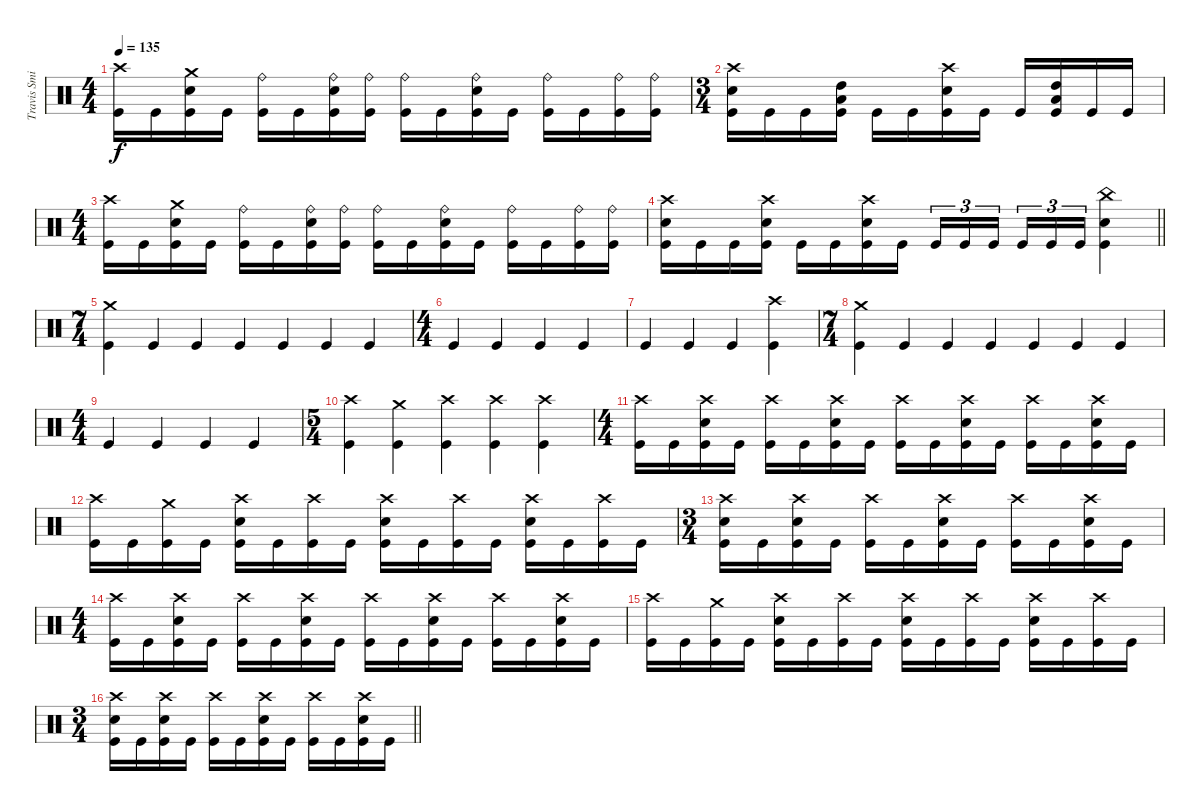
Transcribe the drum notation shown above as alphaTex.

\track ("Travis Smith" "Travis Smi") {instrument percussion}
\staff {score}
\articulation defaults
\ts (4 4)
\tempo 135
\clef neutral
\ks c
("Crash high (hit)" "Kick (hit)").16{dy f} "Kick (hit)".16 ("Crash medium (hit)" "Electric Snare (hit)" "Kick (hit)").16 "Kick (hit)".16 ("Ride (bell)" "Kick (hit)").16 "Kick (hit)".16 ("Ride (bell)" "Electric Snare (hit)" "Kick (hit)").16 ("Ride (bell)" "Kick (hit)").16 ("Ride (bell)" "Kick (hit)").16 "Kick (hit)".16 ("Ride (bell)" "Electric Snare (hit)" "Kick (hit)").16 "Kick (hit)".16 ("Ride (bell)" "Kick (hit)").16 "Kick (hit)".16 ("Ride (bell)" "Kick (hit)").16 ("Ride (bell)" "Kick (hit)").16 |
\ts (3 4)
("Crash high (hit)" "Electric Snare (hit)" "Kick (hit)").16 "Kick (hit)".16 "Kick (hit)".16 ("High Tom (hit)" "Low Tom (hit)" "Kick (hit)").16 "Kick (hit)".16 "Kick (hit)".16 ("Crash high (hit)" "Electric Snare (hit)" "Kick (hit)").16 "Kick (hit)".16 "Kick (hit)".16 ("High Tom (hit)" "Low Tom (hit)" "Kick (hit)").16 "Kick (hit)".16 "Kick (hit)".16 |
\ts (4 4)
("Crash high (hit)" "Kick (hit)").16 "Kick (hit)".16 ("Crash medium (hit)" "Electric Snare (hit)" "Kick (hit)").16 "Kick (hit)".16 ("Ride (bell)" "Kick (hit)").16 "Kick (hit)".16 ("Ride (bell)" "Electric Snare (hit)" "Kick (hit)").16 ("Ride (bell)" "Kick (hit)").16 ("Ride (bell)" "Kick (hit)").16 "Kick (hit)".16 ("Ride (bell)" "Electric Snare (hit)" "Kick (hit)").16 "Kick (hit)".16 ("Ride (bell)" "Kick (hit)").16 "Kick (hit)".16 ("Ride (bell)" "Kick (hit)").16 ("Ride (bell)" "Kick (hit)").16 |
\barLineRight lightlight
("Crash high (hit)" "Electric Snare (hit)" "Kick (hit)").16 "Kick (hit)".16 "Kick (hit)".16 ("Crash high (hit)" "Electric Snare (hit)" "Kick (hit)").16 "Kick (hit)".16 "Kick (hit)".16 ("Crash high (hit)" "Electric Snare (hit)" "Kick (hit)").16 "Kick (hit)".16 "Kick (hit)".16{tu (3 2)} "Kick (hit)".16{tu (3 2)} "Kick (hit)".16{tu (3 2)} "Kick (hit)".16{tu (3 2)} "Kick (hit)".16{tu (3 2)} "Kick (hit)".16{tu (3 2)} ("China (hit)" "Electric Snare (hit)" "Kick (hit)").4 |
\ts (7 4)
\section ("" "")
("Crash medium (hit)" "Kick (hit)").4 "Kick (hit)".4 "Kick (hit)".4 "Kick (hit)".4 "Kick (hit)".4 "Kick (hit)".4 "Kick (hit)".4 |
\ts (4 4)
"Kick (hit)".4 "Kick (hit)".4 "Kick (hit)".4 "Kick (hit)".4 |
"Kick (hit)".4 "Kick (hit)".4 "Kick (hit)".4 ("Crash high (hit)" "Kick (hit)").4 |
\ts (7 4)
("Crash medium (hit)" "Kick (hit)").4 "Kick (hit)".4 "Kick (hit)".4 "Kick (hit)".4 "Kick (hit)".4 "Kick (hit)".4 "Kick (hit)".4 |
\ts (4 4)
"Kick (hit)".4 "Kick (hit)".4 "Kick (hit)".4 "Kick (hit)".4 |
\ts (5 4)
("Crash high (hit)" "Kick (hit)").4 ("Crash medium (hit)" "Kick (hit)").4 ("Crash high (hit)" "Kick (hit)").4 ("Crash high (hit)" "Kick (hit)").4 ("Crash high (hit)" "Kick (hit)").4 |
\ts (4 4)
("Crash high (hit)" "Kick (hit)").16 "Kick (hit)".16 ("Crash high (hit)" "Electric Snare (hit)" "Kick (hit)").16 "Kick (hit)".16 ("Crash high (hit)" "Kick (hit)").16 "Kick (hit)".16 ("Crash high (hit)" "Electric Snare (hit)" "Kick (hit)").16 "Kick (hit)".16 ("Crash high (hit)" "Kick (hit)").16 "Kick (hit)".16 ("Crash high (hit)" "Electric Snare (hit)" "Kick (hit)").16 "Kick (hit)".16 ("Crash high (hit)" "Kick (hit)").16 "Kick (hit)".16 ("Crash high (hit)" "Electric Snare (hit)" "Kick (hit)").16 "Kick (hit)".16 |
("Crash high (hit)" "Kick (hit)").16 "Kick (hit)".16 ("Crash medium (hit)" "Kick (hit)").16 "Kick (hit)".16 ("Crash high (hit)" "Electric Snare (hit)" "Kick (hit)").16 "Kick (hit)".16 ("Crash high (hit)" "Kick (hit)").16 "Kick (hit)".16 ("Crash high (hit)" "Electric Snare (hit)" "Kick (hit)").16 "Kick (hit)".16 ("Crash high (hit)" "Kick (hit)").16 "Kick (hit)".16 ("Crash high (hit)" "Electric Snare (hit)" "Kick (hit)").16 "Kick (hit)".16 ("Crash high (hit)" "Kick (hit)").16 "Kick (hit)".16 |
\ts (3 4)
("Crash high (hit)" "Electric Snare (hit)" "Kick (hit)").16 "Kick (hit)".16 ("Crash high (hit)" "Electric Snare (hit)" "Kick (hit)").16 "Kick (hit)".16 ("Crash high (hit)" "Kick (hit)").16 "Kick (hit)".16 ("Crash high (hit)" "Electric Snare (hit)" "Kick (hit)").16 "Kick (hit)".16 ("Crash high (hit)" "Kick (hit)").16 "Kick (hit)".16 ("Crash high (hit)" "Electric Snare (hit)" "Kick (hit)").16 "Kick (hit)".16 |
\ts (4 4)
("Crash high (hit)" "Kick (hit)").16 "Kick (hit)".16 ("Crash high (hit)" "Electric Snare (hit)" "Kick (hit)").16 "Kick (hit)".16 ("Crash high (hit)" "Kick (hit)").16 "Kick (hit)".16 ("Crash high (hit)" "Electric Snare (hit)" "Kick (hit)").16 "Kick (hit)".16 ("Crash high (hit)" "Kick (hit)").16 "Kick (hit)".16 ("Crash high (hit)" "Electric Snare (hit)" "Kick (hit)").16 "Kick (hit)".16 ("Crash high (hit)" "Kick (hit)").16 "Kick (hit)".16 ("Crash high (hit)" "Electric Snare (hit)" "Kick (hit)").16 "Kick (hit)".16 |
("Crash high (hit)" "Kick (hit)").16 "Kick (hit)".16 ("Crash medium (hit)" "Kick (hit)").16 "Kick (hit)".16 ("Crash high (hit)" "Electric Snare (hit)" "Kick (hit)").16 "Kick (hit)".16 ("Crash high (hit)" "Kick (hit)").16 "Kick (hit)".16 ("Crash high (hit)" "Electric Snare (hit)" "Kick (hit)").16 "Kick (hit)".16 ("Crash high (hit)" "Kick (hit)").16 "Kick (hit)".16 ("Crash high (hit)" "Electric Snare (hit)" "Kick (hit)").16 "Kick (hit)".16 ("Crash high (hit)" "Kick (hit)").16 "Kick (hit)".16 |
\ts (3 4)
\barLineRight lightlight
("Crash high (hit)" "Electric Snare (hit)" "Kick (hit)").16 "Kick (hit)".16 ("Crash high (hit)" "Electric Snare (hit)" "Kick (hit)").16 "Kick (hit)".16 ("Crash high (hit)" "Kick (hit)").16 "Kick (hit)".16 ("Crash high (hit)" "Electric Snare (hit)" "Kick (hit)").16 "Kick (hit)".16 ("Crash high (hit)" "Kick (hit)").16 "Kick (hit)".16 ("Crash high (hit)" "Electric Snare (hit)" "Kick (hit)").16 "Kick (hit)".16
